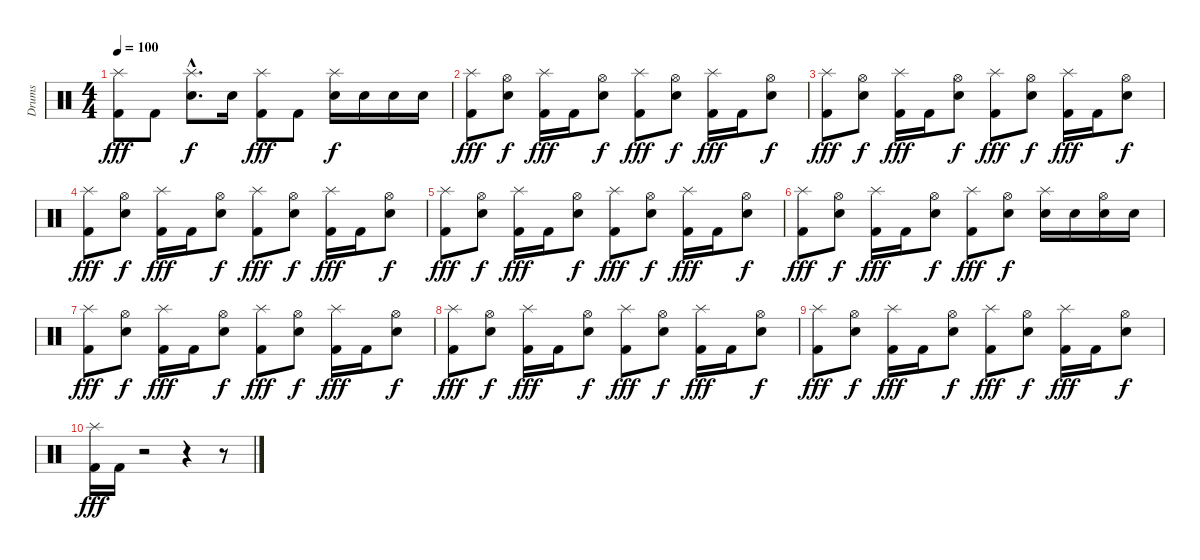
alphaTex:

\track ("Drums" "Drums") {instrument percussion}
\staff {score}
\articulation defaults
\ts (4 4)
\tempo 100
\clef neutral
\ks c
("Splash (hit)" "Kick (hit) 2").8{dy fff} "Kick (hit) 2".8 ("Splash (hit)"{hac} "Electric Snare (hit)"{hac}).8{d dy f} "Electric Snare (hit)".16 ("Splash (hit)" "Kick (hit) 2").8{dy fff} "Kick (hit) 2".8 ("Splash (hit)" "Electric Snare (hit)").16{dy f} "Electric Snare (hit)".16 "Electric Snare (hit)".16 "Electric Snare (hit)".16 |
("Splash (hit)" "Kick (hit) 2").8{dy fff} ("Hi-Hat (open)" "Electric Snare (hit)").8{dy f} ("Splash (hit)" "Kick (hit) 2").16{dy fff} "Kick (hit) 2".16 ("Hi-Hat (open)" "Electric Snare (hit)").8{dy f} ("Splash (hit)" "Kick (hit) 2").8{dy fff} ("Hi-Hat (open)" "Electric Snare (hit)").8{dy f} ("Splash (hit)" "Kick (hit) 2").16{dy fff} "Kick (hit) 2".16 ("Hi-Hat (open)" "Electric Snare (hit)").8{dy f} |
("Splash (hit)" "Kick (hit) 2").8{dy fff} ("Hi-Hat (open)" "Electric Snare (hit)").8{dy f} ("Splash (hit)" "Kick (hit) 2").16{dy fff} "Kick (hit) 2".16 ("Hi-Hat (open)" "Electric Snare (hit)").8{dy f} ("Splash (hit)" "Kick (hit) 2").8{dy fff} ("Hi-Hat (open)" "Electric Snare (hit)").8{dy f} ("Splash (hit)" "Kick (hit) 2").16{dy fff} "Kick (hit) 2".16 ("Hi-Hat (open)" "Electric Snare (hit)").8{dy f} |
("Splash (hit)" "Kick (hit) 2").8{dy fff} ("Hi-Hat (open)" "Electric Snare (hit)").8{dy f} ("Splash (hit)" "Kick (hit) 2").16{dy fff} "Kick (hit) 2".16 ("Hi-Hat (open)" "Electric Snare (hit)").8{dy f} ("Splash (hit)" "Kick (hit) 2").8{dy fff} ("Hi-Hat (open)" "Electric Snare (hit)").8{dy f} ("Splash (hit)" "Kick (hit) 2").16{dy fff} "Kick (hit) 2".16 ("Hi-Hat (open)" "Electric Snare (hit)").8{dy f} |
("Splash (hit)" "Kick (hit) 2").8{dy fff} ("Hi-Hat (open)" "Electric Snare (hit)").8{dy f} ("Splash (hit)" "Kick (hit) 2").16{dy fff} "Kick (hit) 2".16 ("Hi-Hat (open)" "Electric Snare (hit)").8{dy f} ("Splash (hit)" "Kick (hit) 2").8{dy fff} ("Hi-Hat (open)" "Electric Snare (hit)").8{dy f} ("Splash (hit)" "Kick (hit) 2").16{dy fff} "Kick (hit) 2".16 ("Hi-Hat (open)" "Electric Snare (hit)").8{dy f} |
("Splash (hit)" "Kick (hit) 2").8{dy fff} ("Hi-Hat (open)" "Electric Snare (hit)").8{dy f} ("Splash (hit)" "Kick (hit) 2").16{dy fff} "Kick (hit) 2".16 ("Hi-Hat (open)" "Electric Snare (hit)").8{dy f} ("Splash (hit)" "Kick (hit) 2").8{dy fff} ("Hi-Hat (open)" "Electric Snare (hit)").8{dy f} ("Splash (hit)" "Electric Snare (hit)").16 "Electric Snare (hit)".16 ("Hi-Hat (open)" "Electric Snare (hit)").16 "Electric Snare (hit)".16 |
("Splash (hit)" "Kick (hit) 2").8{dy fff} ("Hi-Hat (open)" "Electric Snare (hit)").8{dy f} ("Splash (hit)" "Kick (hit) 2").16{dy fff} "Kick (hit) 2".16 ("Hi-Hat (open)" "Electric Snare (hit)").8{dy f} ("Splash (hit)" "Kick (hit) 2").8{dy fff} ("Hi-Hat (open)" "Electric Snare (hit)").8{dy f} ("Splash (hit)" "Kick (hit) 2").16{dy fff} "Kick (hit) 2".16 ("Hi-Hat (open)" "Electric Snare (hit)").8{dy f} |
("Splash (hit)" "Kick (hit) 2").8{dy fff} ("Hi-Hat (open)" "Electric Snare (hit)").8{dy f} ("Splash (hit)" "Kick (hit) 2").16{dy fff} "Kick (hit) 2".16 ("Hi-Hat (open)" "Electric Snare (hit)").8{dy f} ("Splash (hit)" "Kick (hit) 2").8{dy fff} ("Hi-Hat (open)" "Electric Snare (hit)").8{dy f} ("Splash (hit)" "Kick (hit) 2").16{dy fff} "Kick (hit) 2".16 ("Hi-Hat (open)" "Electric Snare (hit)").8{dy f} |
("Splash (hit)" "Kick (hit) 2").8{dy fff} ("Hi-Hat (open)" "Electric Snare (hit)").8{dy f} ("Splash (hit)" "Kick (hit) 2").16{dy fff} "Kick (hit) 2".16 ("Hi-Hat (open)" "Electric Snare (hit)").8{dy f} ("Splash (hit)" "Kick (hit) 2").8{dy fff} ("Hi-Hat (open)" "Electric Snare (hit)").8{dy f} ("Splash (hit)" "Kick (hit) 2").16{dy fff} "Kick (hit) 2".16 ("Hi-Hat (open)" "Electric Snare (hit)").8{dy f} |
("Splash (hit)" "Kick (hit) 2").16{dy fff} "Kick (hit) 2".16 r.2 r.4 r.8
